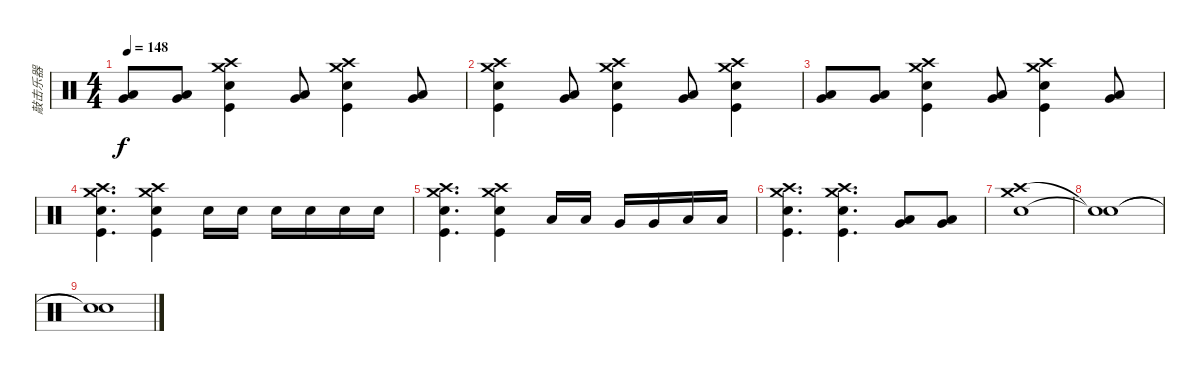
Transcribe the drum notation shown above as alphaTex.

\track ("敲击乐器" "敲击乐器") {instrument percussion}
\staff {score}
\articulation defaults
\ts (4 4)
\tempo 148
\clef neutral
\ks c
("Low Floor Tom (hit)" "Very Low Tom (hit)").8{dy f} ("Low Floor Tom (hit)" "Very Low Tom (hit)").8 ("Crash high (hit)" "Snare (hit) 2" "Kick (hit)" "Crash medium (hit)").4 ("Very Low Tom (hit)" "Low Floor Tom (hit)").8 ("Crash high (hit)" "Kick (hit)" "Snare (hit) 2" "Crash medium (hit)").4 ("Very Low Tom (hit)" "Low Floor Tom (hit)").8 |
("Crash high (hit)" "Snare (hit) 2" "Kick (hit)" "Crash medium (hit)").4 ("Very Low Tom (hit)" "Low Floor Tom (hit)").8 ("Crash high (hit)" "Kick (hit)" "Snare (hit) 2" "Crash medium (hit)").4 ("Very Low Tom (hit)" "Low Floor Tom (hit)").8 ("Crash high (hit)" "Kick (hit)" "Snare (hit) 2" "Crash medium (hit)").4 |
("Low Floor Tom (hit)" "Very Low Tom (hit)").8 ("Low Floor Tom (hit)" "Very Low Tom (hit)").8 ("Crash high (hit)" "Snare (hit) 2" "Kick (hit)" "Crash medium (hit)").4 ("Very Low Tom (hit)" "Low Floor Tom (hit)").8 ("Crash high (hit)" "Kick (hit)" "Snare (hit) 2" "Crash medium (hit)").4 ("Very Low Tom (hit)" "Low Floor Tom (hit)").8 |
("Crash high (hit)" "Snare (hit) 2" "Kick (hit)" "Crash medium (hit)").4{d} ("Crash high (hit)" "Snare (hit) 2" "Kick (hit)" "Crash medium (hit)").4 "Snare (hit) 2".16 "Snare (hit) 2".16 "Snare (hit) 2".16 "Snare (hit) 2".16 "Snare (hit) 2".16 "Snare (hit) 2".16 |
("Crash high (hit)" "Snare (hit) 2" "Kick (hit)" "Crash medium (hit)").4{d} ("Crash high (hit)" "Snare (hit) 2" "Kick (hit)" "Crash medium (hit)").4 "Low Tom (hit)".16 "Low Tom (hit)".16 "Very Low Tom (hit)".16 "Very Low Tom (hit)".16 "Low Floor Tom (hit)".16 "Low Floor Tom (hit)".16 |
("Crash high (hit)" "Snare (hit) 2" "Kick (hit)" "Crash medium (hit)").4{d} ("Crash high (hit)" "Snare (hit) 2" "Kick (hit)" "Crash medium (hit)").4{d} ("Low Floor Tom (hit)" "Very Low Tom (hit)").8 ("Low Floor Tom (hit)" "Very Low Tom (hit)").8 |
("Crash high (hit)" "Snare (hit) 2" "Crash medium (hit)").1 |
("Snare (hit)"{t} "Snare (hit)"{t}).1{volume 4} |
("Snare (hit)"{t} "Snare (hit)"{t}).1
